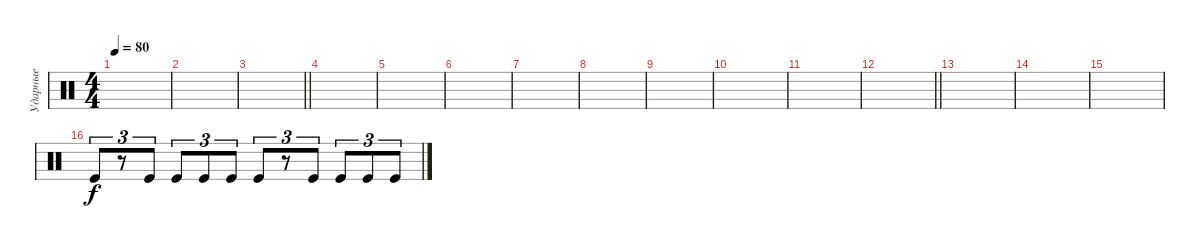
\track ("Ударные" "Ударные") {instrument percussion}
\staff {score}
\articulation defaults
\ts (4 4)
\tempo 80
\clef neutral
\ks c
|
|
\barLineRight lightlight
|
\section ("" " ")
|
|
|
|
|
|
|
|
\barLineRight lightlight
|
|
|
|
"Kick (hit)".8{tu (3 2)} r.8{tu (3 2)} "Kick (hit)".8{tu (3 2)} "Kick (hit)".8{tu (3 2)} "Kick (hit)".8{tu (3 2)} "Kick (hit)".8{tu (3 2)} "Kick (hit)".8{tu (3 2)} r.8{tu (3 2)} "Kick (hit)".8{tu (3 2)} "Kick (hit)".8{tu (3 2)} "Kick (hit)".8{tu (3 2)} "Kick (hit)".8{tu (3 2)}
